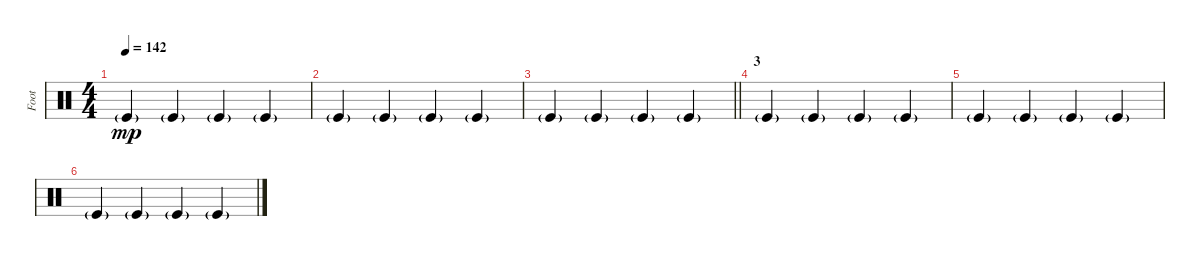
\track ("Foot" "Foot") {instrument percussion}
\staff {score}
\articulation defaults
\ts (4 4)
\tempo 142
\clef neutral
\ks c "Kick (hit)"{g}.4{dy mp} "Kick (hit)"{g}.4 "Kick (hit)"{g}.4 "Kick (hit)"{g}.4
|
"Kick (hit)"{g}.4 "Kick (hit)"{g}.4 "Kick (hit)"{g}.4 "Kick (hit)"{g}.4 |
\barLineRight lightlight "Kick (hit)"{g}.4 "Kick (hit)"{g}.4 "Kick (hit)"{g}.4 "Kick (hit)"{g}.4
|
\section ("" "3")
"Kick (hit)"{g}.4 "Kick (hit)"{g}.4 "Kick (hit)"{g}.4 "Kick (hit)"{g}.4 |
"Kick (hit)"{g}.4 "Kick (hit)"{g}.4 "Kick (hit)"{g}.4 "Kick (hit)"{g}.4 |
"Kick (hit)"{g}.4 "Kick (hit)"{g}.4 "Kick (hit)"{g}.4 "Kick (hit)"{g}.4
